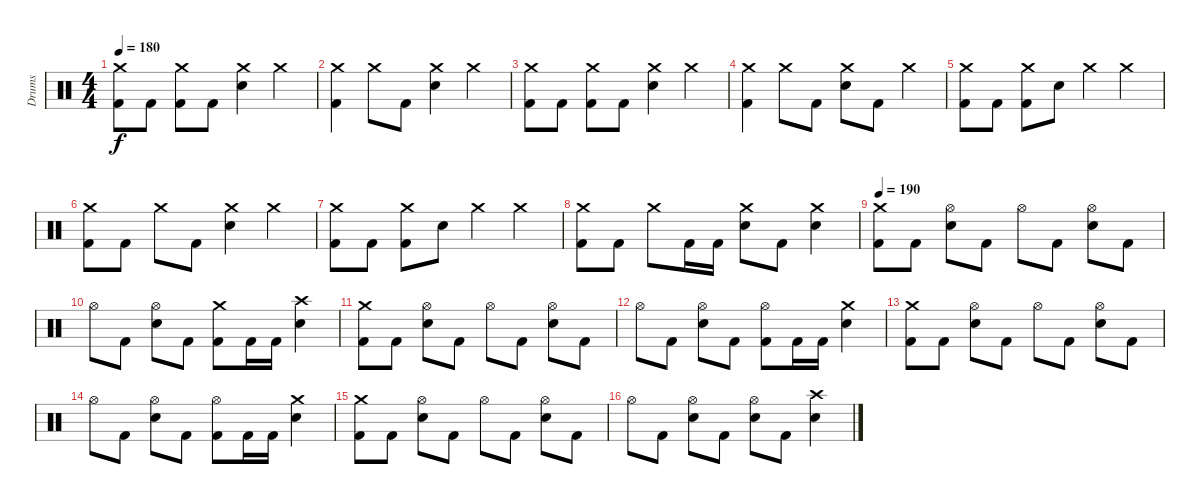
\track ("Drums" "Drums") {instrument percussion}
\staff {score}
\articulation defaults
\ts (4 4)
\section ("" "")
\tempo 180
\clef neutral
\ks c
("Crash medium (hit)" "Kick (hit) 2").8{dy f} "Kick (hit) 2".8 ("Crash medium (hit)" "Kick (hit) 2").8 "Kick (hit) 2".8 ("Crash medium (hit)" "Electric Snare (hit)").4 "Crash medium (hit)".4 |
("Crash medium (hit)" "Kick (hit) 2").4 "Crash medium (hit)".8 "Kick (hit) 2".8 ("Crash medium (hit)" "Electric Snare (hit)").4 "Crash medium (hit)".4 |
("Crash medium (hit)" "Kick (hit) 2").8 "Kick (hit) 2".8 ("Crash medium (hit)" "Kick (hit) 2").8 "Kick (hit) 2".8 ("Crash medium (hit)" "Electric Snare (hit)").4 "Crash medium (hit)".4 |
("Crash medium (hit)" "Kick (hit) 2").4 "Crash medium (hit)".8 "Kick (hit) 2".8 ("Crash medium (hit)" "Electric Snare (hit)").8 "Kick (hit) 2".8 "Crash medium (hit)".4 |
("Crash medium (hit)" "Kick (hit) 2").8 "Kick (hit) 2".8 ("Crash medium (hit)" "Kick (hit) 2").8 "Electric Snare (hit)".8 "Crash medium (hit)".4 "Crash medium (hit)".4 |
("Crash medium (hit)" "Kick (hit) 2").8 "Kick (hit) 2".8 "Crash medium (hit)".8 "Kick (hit) 2".8 ("Crash medium (hit)" "Electric Snare (hit)").4 "Crash medium (hit)".4 |
("Crash medium (hit)" "Kick (hit) 2").8 "Kick (hit) 2".8 ("Crash medium (hit)" "Kick (hit) 2").8 "Electric Snare (hit)".8 "Crash medium (hit)".4 "Crash medium (hit)".4 |
("Crash medium (hit)" "Kick (hit) 2").8 "Kick (hit) 2".8 "Crash medium (hit)".8 "Kick (hit) 2".16 "Kick (hit) 2".16 ("Crash medium (hit)" "Electric Snare (hit)").8 "Kick (hit) 2".8 ("Crash medium (hit)" "Electric Snare (hit)").4 |
\tempo 190
("Crash medium (hit)" "Kick (hit) 2").8 "Kick (hit) 2".8 ("Hi-Hat (open)" "Electric Snare (hit)").8 "Kick (hit) 2".8 "Hi-Hat (open)".8 "Kick (hit) 2".8 ("Hi-Hat (open)" "Electric Snare (hit)").8 "Kick (hit) 2".8 |
"Hi-Hat (open)".8 "Kick (hit) 2".8 ("Hi-Hat (open)" "Electric Snare (hit)").8 "Kick (hit) 2".8 ("Crash medium (hit)" "Kick (hit) 2").8 "Kick (hit) 2".16 "Kick (hit) 2".16 ("Crash high (hit)" "Electric Snare (hit)").4 |
("Crash medium (hit)" "Kick (hit) 2").8 "Kick (hit) 2".8 ("Hi-Hat (open)" "Electric Snare (hit)").8 "Kick (hit) 2".8 "Hi-Hat (open)".8 "Kick (hit) 2".8 ("Hi-Hat (open)" "Electric Snare (hit)").8 "Kick (hit) 2".8 |
"Hi-Hat (open)".8 "Kick (hit) 2".8 ("Hi-Hat (open)" "Electric Snare (hit)").8 "Kick (hit) 2".8 ("Hi-Hat (open)" "Kick (hit) 2").8 "Kick (hit) 2".16 "Kick (hit) 2".16 ("Crash medium (hit)" "Electric Snare (hit)").4 |
("Crash medium (hit)" "Kick (hit) 2").8 "Kick (hit) 2".8 ("Hi-Hat (open)" "Electric Snare (hit)").8 "Kick (hit) 2".8 "Hi-Hat (open)".8 "Kick (hit) 2".8 ("Hi-Hat (open)" "Electric Snare (hit)").8 "Kick (hit) 2".8 |
"Hi-Hat (open)".8 "Kick (hit) 2".8 ("Hi-Hat (open)" "Electric Snare (hit)").8 "Kick (hit) 2".8 ("Hi-Hat (open)" "Kick (hit) 2").8 "Kick (hit) 2".16 "Kick (hit) 2".16 ("Crash medium (hit)" "Electric Snare (hit)").4 |
("Crash medium (hit)" "Kick (hit) 2").8 "Kick (hit) 2".8 ("Hi-Hat (open)" "Electric Snare (hit)").8 "Kick (hit) 2".8 "Hi-Hat (open)".8 "Kick (hit) 2".8 ("Hi-Hat (open)" "Electric Snare (hit)").8 "Kick (hit) 2".8 |
"Hi-Hat (open)".8 "Kick (hit) 2".8 ("Hi-Hat (open)" "Electric Snare (hit)").8 "Kick (hit) 2".8 ("Hi-Hat (open)" "Electric Snare (hit)").8 "Kick (hit) 2".8 ("Crash high (hit)" "Electric Snare (hit)").4
